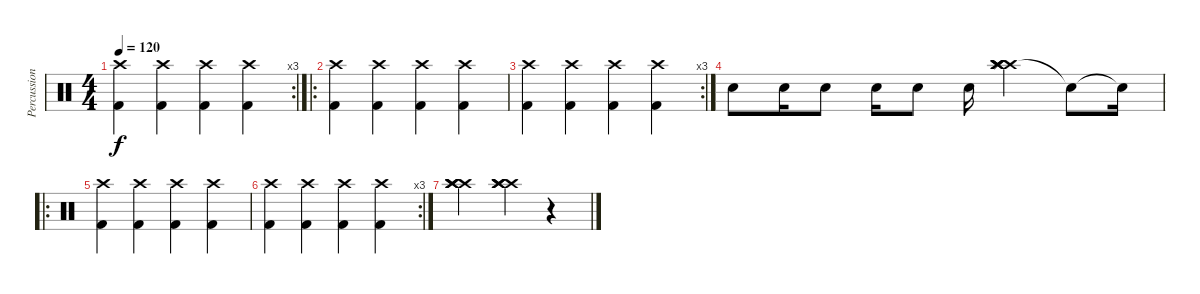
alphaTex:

\track ("Percussion" "Percussion") {instrument percussion}
\staff {score}
\articulation defaults
\rc 3
\ts (4 4)
\tempo 120
\clef neutral
\ks c
("Kick (hit) 2" "Crash high (hit)").4{dy f} ("Kick (hit) 2" "Crash high (hit)").4 ("Kick (hit) 2" "Crash high (hit)").4 ("Kick (hit) 2" "Crash high (hit)").4 |
\ro
("Kick (hit) 2" "Crash high (hit)").4 ("Kick (hit) 2" "Crash high (hit)").4 ("Kick (hit) 2" "Crash high (hit)").4 ("Kick (hit) 2" "Crash high (hit)").4 |
\rc 3
("Kick (hit) 2" "Crash high (hit)").4 ("Kick (hit) 2" "Crash high (hit)").4 ("Kick (hit) 2" "Crash high (hit)").4 ("Kick (hit) 2" "Crash high (hit)").4 |
"Snare (hit) 2".8 "Electric Snare (hit)".16 "Snare (hit) 2".8 "Electric Snare (hit)".16 "Snare (hit) 2".8 "Electric Snare (hit)".16 ("Crash high (hit)" "Crash high (hit)" "Crash high (hit)" "Crash high (hit)" "Splash (hit)").4 "Snare (hit)"{t}.8 "Snare (hit)"{t}.16 |
\ro
("Kick (hit) 2" "Crash high (hit)").4 ("Kick (hit) 2" "Crash high (hit)").4 ("Kick (hit) 2" "Crash high (hit)").4 ("Kick (hit) 2" "Crash high (hit)").4 |
\rc 3
("Kick (hit) 2" "Crash high (hit)").4 ("Kick (hit) 2" "Crash high (hit)").4 ("Kick (hit) 2" "Crash high (hit)").4 ("Kick (hit) 2" "Crash high (hit)").4 |
("Crash high (hit)" "Crash high (hit)" "Crash high (hit)" "Crash high (hit)").2 ("Crash high (hit)" "Crash high (hit)" "Crash high (hit)" "Crash high (hit)").4 r.4
